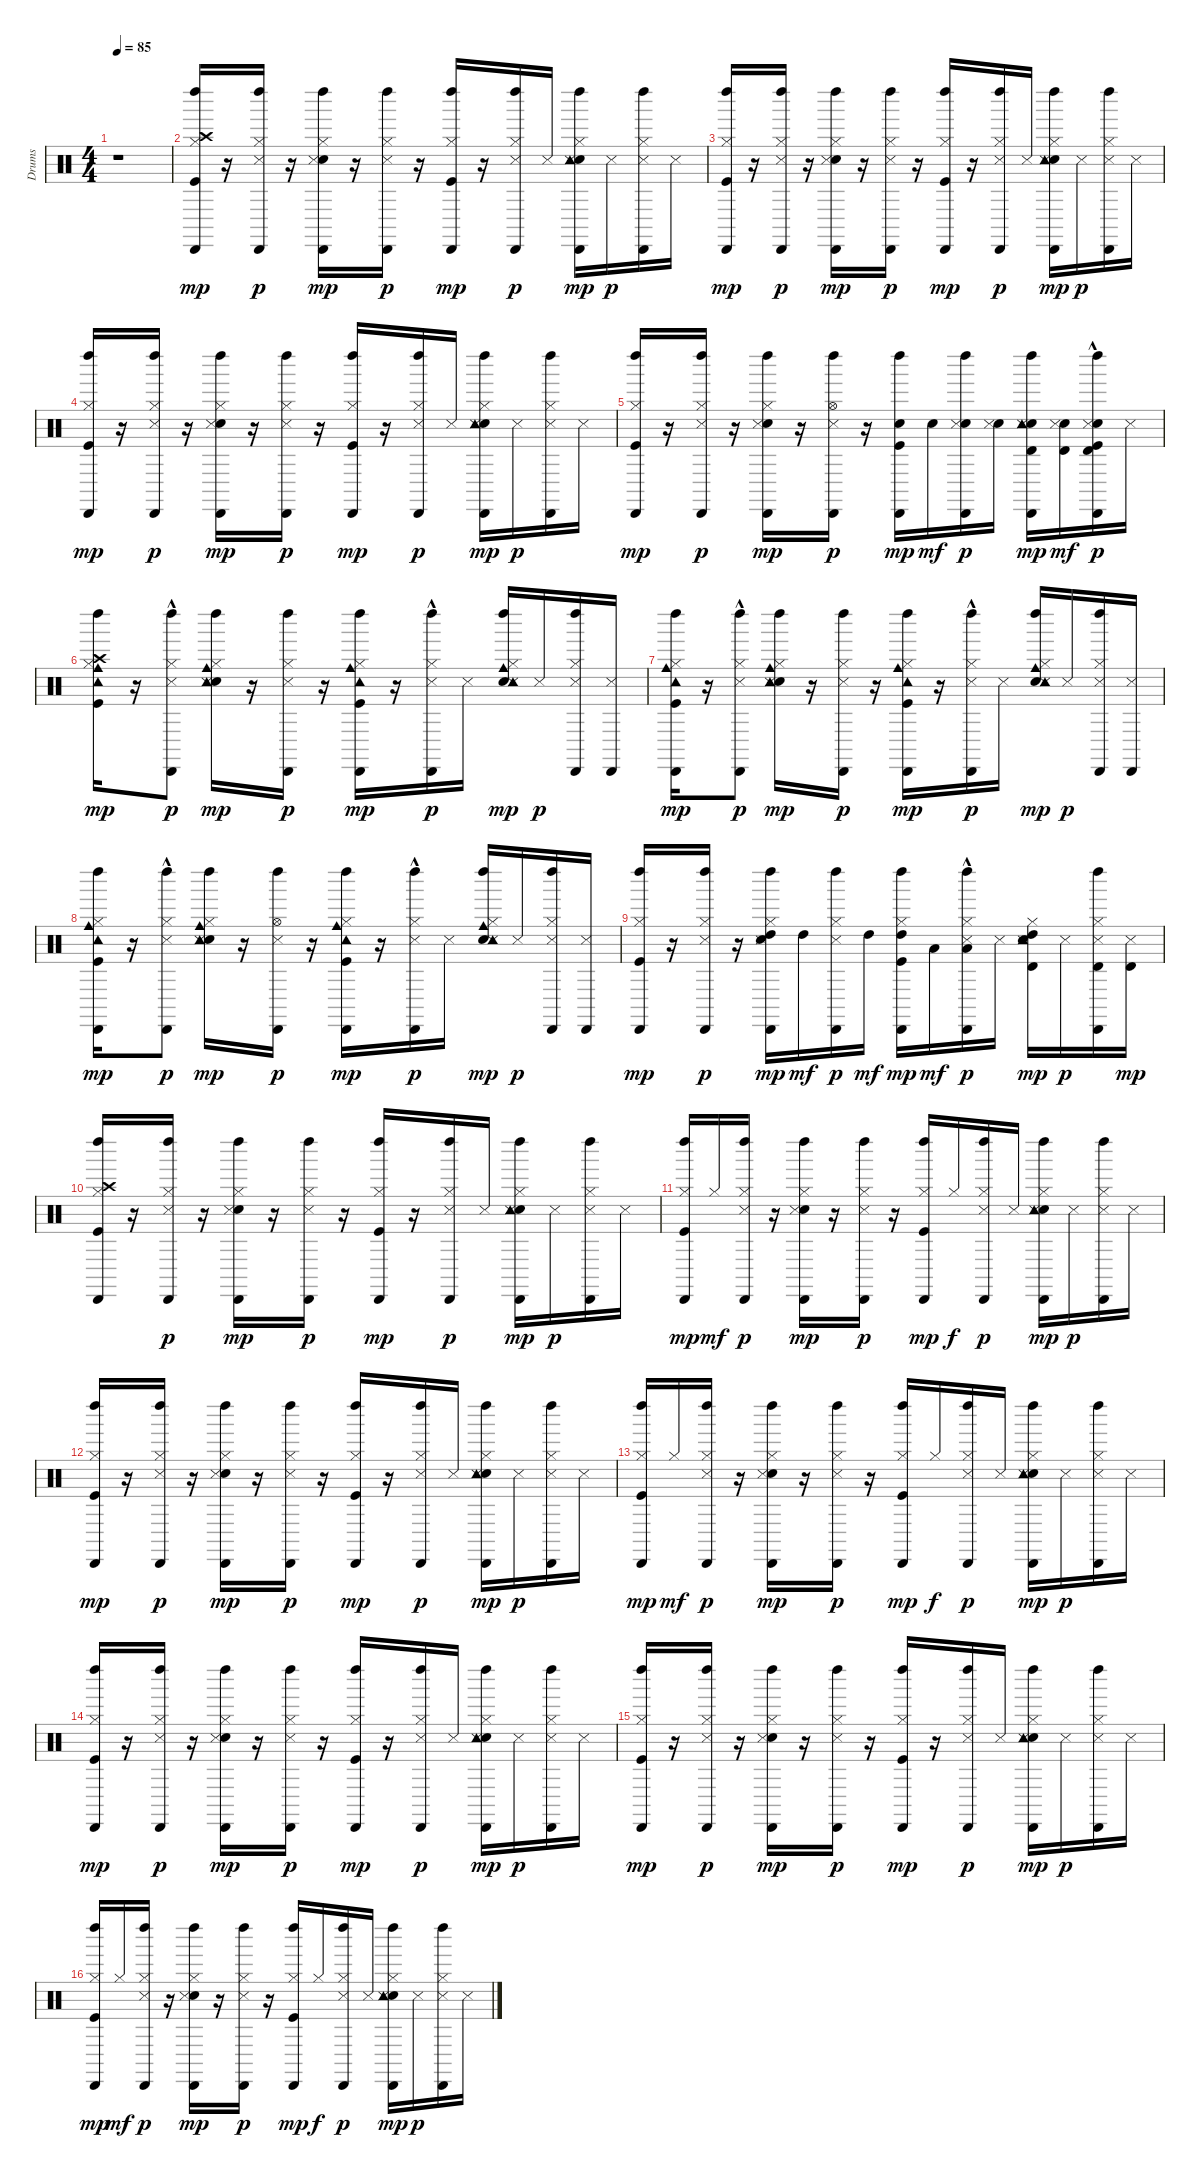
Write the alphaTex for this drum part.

\track ("Drums" "Drums") {instrument percussion}
\staff {score}
\articulation defaults
\ts (4 4)
\tempo 85
\clef neutral
\ks c
r.1{dy mp} |
("Kick (hit)" "Hi-Hat (closed)" "Crash high (hit)" "Left Maraca (hit)" "Cabasa (hit)").16 r.16 ("Hi-Hat (closed)" "Snare (side stick) 3" "Left Maraca (hit)" "Cabasa (hit)").16{dy p} r.16 ("Snare (hit) 2" "Hi-Hat (closed)" "Snare (side stick) 3" "Left Maraca (hit)" "Cabasa (hit)").16{dy mp} r.16 ("Hi-Hat (closed)" "Snare (side stick) 3" "Left Maraca (hit)" "Cabasa (hit)").16{dy p} r.16 ("Kick (hit)" "Hi-Hat (closed)" "Left Maraca (hit)" "Cabasa (hit)").16{dy mp} r.16 ("Hi-Hat (closed)" "Snare (side stick) 3" "Left Maraca (hit)" "Cabasa (hit)").16{dy p} "Snare (side stick) 3".16 ("Snare (hit) 2" "Hi-Hat (closed)" "Snare (side stick) 3" "Tambourine (hit)" "Left Maraca (hit)" "Cabasa (hit)").16{dy mp} "Snare (side stick) 3".16{dy p} ("Hi-Hat (closed)" "Snare (side stick) 3" "Left Maraca (hit)" "Cabasa (hit)").16 "Snare (side stick) 3".16 |
("Kick (hit)" "Hi-Hat (closed)" "Left Maraca (hit)" "Cabasa (hit)").16{dy mp} r.16 ("Hi-Hat (closed)" "Snare (side stick) 3" "Left Maraca (hit)" "Cabasa (hit)").16{dy p} r.16 ("Snare (hit) 2" "Hi-Hat (closed)" "Snare (side stick) 3" "Left Maraca (hit)" "Cabasa (hit)").16{dy mp} r.16 ("Hi-Hat (closed)" "Snare (side stick) 3" "Left Maraca (hit)" "Cabasa (hit)").16{dy p} r.16 ("Kick (hit)" "Hi-Hat (closed)" "Left Maraca (hit)" "Cabasa (hit)").16{dy mp} r.16 ("Hi-Hat (closed)" "Snare (side stick) 3" "Left Maraca (hit)" "Cabasa (hit)").16{dy p} "Snare (side stick) 3".16 ("Snare (hit) 2" "Hi-Hat (closed)" "Snare (side stick) 3" "Tambourine (hit)" "Left Maraca (hit)" "Cabasa (hit)").16{dy mp} "Snare (side stick) 3".16{dy p} ("Hi-Hat (closed)" "Snare (side stick) 3" "Left Maraca (hit)" "Cabasa (hit)").16 "Snare (side stick) 3".16 |
("Kick (hit)" "Hi-Hat (closed)" "Left Maraca (hit)" "Cabasa (hit)").16{dy mp} r.16 ("Hi-Hat (closed)" "Snare (side stick) 3" "Left Maraca (hit)" "Cabasa (hit)").16{dy p} r.16 ("Snare (hit) 2" "Hi-Hat (closed)" "Snare (side stick) 3" "Left Maraca (hit)" "Cabasa (hit)").16{dy mp} r.16 ("Hi-Hat (closed)" "Snare (side stick) 3" "Left Maraca (hit)" "Cabasa (hit)").16{dy p} r.16 ("Kick (hit)" "Hi-Hat (closed)" "Left Maraca (hit)" "Cabasa (hit)").16{dy mp} r.16 ("Hi-Hat (closed)" "Snare (side stick) 3" "Left Maraca (hit)" "Cabasa (hit)").16{dy p} "Snare (side stick) 3".16 ("Snare (hit) 2" "Hi-Hat (closed)" "Snare (side stick) 3" "Tambourine (hit)" "Left Maraca (hit)" "Cabasa (hit)").16{dy mp} "Snare (side stick) 3".16{dy p} ("Hi-Hat (closed)" "Snare (side stick) 3" "Left Maraca (hit)" "Cabasa (hit)").16 "Snare (side stick) 3".16 |
("Kick (hit)" "Hi-Hat (closed)" "Left Maraca (hit)" "Cabasa (hit)").16{dy mp} r.16 ("Hi-Hat (closed)" "Snare (side stick) 3" "Left Maraca (hit)" "Cabasa (hit)").16{dy p} r.16 ("Snare (hit) 2" "Hi-Hat (closed)" "Snare (side stick) 3" "Left Maraca (hit)" "Cabasa (hit)").16{dy mp} r.16 ("Hi-Hat (open)" "Snare (side stick) 3" "Left Maraca (hit)" "Cabasa (hit)").16{dy p} r.16 ("Kick (hit)" "Snare (hit) 2" "Left Maraca (hit)" "Cabasa (hit)").16{dy mp} "Snare (hit) 2".16{dy mf} ("Snare (hit) 2" "Snare (side stick) 3" "Left Maraca (hit)" "Cabasa (hit)").16{dy p} ("Snare (hit) 2" "Snare (side stick) 3").16 ("Snare (hit) 2" "Snare (side stick) 3" "Timbale high (hit)" "Tambourine (hit)" "Left Maraca (hit)" "Cabasa (hit)").16{dy mp} ("Snare (hit) 2" "Snare (side stick) 3" "Timbale high (hit)").16{dy mf} ("Kick (hit)" "Snare (hit) 2" "Snare (side stick) 3" "Timbale high (hit)" "Left Maraca (hit)" "Cabasa (hit)"{hac}).16{dy p} "Snare (side stick) 3".16 |
("Kick (hit)" "Hi-Hat (closed)" "Cowbell medium (hit)" "Crash high (hit)" "Tambourine (hit)" "Left Maraca (hit)").16{dy mp} r.16 ("Hi-Hat (closed)" "Snare (side stick) 3" "Left Maraca (hit)" "Cabasa (hit)"{hac}).8{dy p} ("Snare (hit) 2" "Hi-Hat (closed)" "Snare (side stick) 3" "Cowbell medium (hit)" "Tambourine (hit)" "Left Maraca (hit)").16{dy mp} r.16 ("Hi-Hat (closed)" "Snare (side stick) 3" "Left Maraca (hit)" "Cabasa (hit)").16{dy p} r.16 ("Kick (hit)" "Hi-Hat (closed)" "Cowbell medium (hit)" "Tambourine (hit)" "Left Maraca (hit)" "Cabasa (hit)").16{dy mp} r.16 ("Hi-Hat (closed)" "Snare (side stick) 3" "Left Maraca (hit)" "Cabasa (hit)"{hac}).16{dy p} "Snare (side stick) 3".16 ("Snare (hit) 2" "Hi-Hat (closed)" "Snare (side stick) 3" "Cowbell medium (hit)" "Tambourine (hit)" "Left Maraca (hit)").16{dy mp} "Snare (side stick) 3".16{dy p} ("Hi-Hat (closed)" "Snare (side stick) 3" "Left Maraca (hit)" "Cabasa (hit)").16 ("Snare (side stick) 3" "Cabasa (hit)").16 |
("Kick (hit)" "Hi-Hat (closed)" "Cowbell medium (hit)" "Tambourine (hit)" "Left Maraca (hit)" "Cabasa (hit)").16{dy mp} r.16 ("Hi-Hat (closed)" "Snare (side stick) 3" "Left Maraca (hit)" "Cabasa (hit)"{hac}).8{dy p} ("Snare (hit) 2" "Hi-Hat (closed)" "Snare (side stick) 3" "Cowbell medium (hit)" "Tambourine (hit)" "Left Maraca (hit)").16{dy mp} r.16 ("Hi-Hat (closed)" "Snare (side stick) 3" "Left Maraca (hit)" "Cabasa (hit)").16{dy p} r.16 ("Kick (hit)" "Hi-Hat (closed)" "Cowbell medium (hit)" "Tambourine (hit)" "Left Maraca (hit)" "Cabasa (hit)").16{dy mp} r.16 ("Hi-Hat (closed)" "Snare (side stick) 3" "Left Maraca (hit)" "Cabasa (hit)"{hac}).16{dy p} "Snare (side stick) 3".16 ("Snare (hit) 2" "Hi-Hat (closed)" "Snare (side stick) 3" "Cowbell medium (hit)" "Tambourine (hit)" "Left Maraca (hit)").16{dy mp} "Snare (side stick) 3".16{dy p} ("Hi-Hat (closed)" "Snare (side stick) 3" "Left Maraca (hit)" "Cabasa (hit)").16 ("Snare (side stick) 3" "Cabasa (hit)").16 |
("Kick (hit)" "Hi-Hat (closed)" "Cowbell medium (hit)" "Tambourine (hit)" "Left Maraca (hit)" "Cabasa (hit)").16{dy mp} r.16 ("Hi-Hat (closed)" "Snare (side stick) 3" "Left Maraca (hit)" "Cabasa (hit)"{hac}).8{dy p} ("Snare (hit) 2" "Hi-Hat (closed)" "Snare (side stick) 3" "Cowbell medium (hit)" "Tambourine (hit)" "Left Maraca (hit)").16{dy mp} r.16 ("Hi-Hat (open)" "Snare (side stick) 3" "Left Maraca (hit)" "Cabasa (hit)").16{dy p} r.16 ("Kick (hit)" "Hi-Hat (closed)" "Cowbell medium (hit)" "Tambourine (hit)" "Left Maraca (hit)" "Cabasa (hit)").16{dy mp} r.16 ("Hi-Hat (closed)" "Snare (side stick) 3" "Left Maraca (hit)" "Cabasa (hit)"{hac}).16{dy p} "Snare (side stick) 3".16 ("Snare (hit) 2" "Hi-Hat (closed)" "Snare (side stick) 3" "Cowbell medium (hit)" "Tambourine (hit)" "Left Maraca (hit)").16{dy mp} "Snare (side stick) 3".16{dy p} ("Hi-Hat (closed)" "Snare (side stick) 3" "Left Maraca (hit)" "Cabasa (hit)").16 ("Snare (side stick) 3" "Cabasa (hit)").16 |
("Kick (hit)" "Hi-Hat (closed)" "Left Maraca (hit)" "Cabasa (hit)").16{dy mp} r.16 ("Hi-Hat (closed)" "Snare (side stick) 3" "Left Maraca (hit)" "Cabasa (hit)").16{dy p} r.16 ("Snare (hit) 2" "Hi-Hat (closed)" "Snare (side stick) 3" "High Tom (hit)" "Left Maraca (hit)" "Cabasa (hit)").16{dy mp} "High Tom (hit)".16{dy mf} ("Hi-Hat (closed)" "Snare (side stick) 3" "Left Maraca (hit)" "Cabasa (hit)").16{dy p} "High Tom (hit)".16{dy mf} ("Kick (hit)" "Hi-Hat (closed)" "High Tom (hit)" "Left Maraca (hit)" "Cabasa (hit)").16{dy mp} "Low Tom (hit)".16{dy mf} ("Hi-Hat (closed)" "Snare (side stick) 3" "Low Tom (hit)" "Left Maraca (hit)"{hac} "Cabasa (hit)"{hac}).16{dy p} "Snare (side stick) 3".16 ("Snare (hit) 2" "Hi-Hat (closed)" "Snare (side stick) 3" "High Tom (hit)" "Timbale high (hit)" "Tambourine (hit)").16{dy mp} "Snare (side stick) 3".16{dy p} ("Hi-Hat (closed)" "Snare (side stick) 3" "Timbale high (hit)" "Left Maraca (hit)" "Cabasa (hit)").16 ("Snare (side stick) 3" "Timbale high (hit)").16{dy mp} |
("Kick (hit)" "Hi-Hat (closed)" "Crash high (hit)" "Left Maraca (hit)" "Cabasa (hit)").16 r.16 ("Hi-Hat (closed)" "Snare (side stick) 3" "Left Maraca (hit)" "Cabasa (hit)").16{dy p} r.16 ("Snare (hit) 2" "Hi-Hat (closed)" "Snare (side stick) 3" "Left Maraca (hit)" "Cabasa (hit)").16{dy mp} r.16 ("Hi-Hat (closed)" "Snare (side stick) 3" "Left Maraca (hit)" "Cabasa (hit)").16{dy p} r.16 ("Kick (hit)" "Hi-Hat (closed)" "Left Maraca (hit)" "Cabasa (hit)").16{dy mp} r.16 ("Hi-Hat (closed)" "Snare (side stick) 3" "Left Maraca (hit)" "Cabasa (hit)").16{dy p} "Snare (side stick) 3".16 ("Snare (hit) 2" "Hi-Hat (closed)" "Snare (side stick) 3" "Tambourine (hit)" "Left Maraca (hit)" "Cabasa (hit)").16{dy mp} "Snare (side stick) 3".16{dy p} ("Hi-Hat (closed)" "Snare (side stick) 3" "Left Maraca (hit)" "Cabasa (hit)").16 "Snare (side stick) 3".16 |
("Kick (hit)" "Hi-Hat (closed)" "Left Maraca (hit)" "Cabasa (hit)").16{dy mp} "Hi-Hat (closed)".16{dy mf} ("Hi-Hat (closed)" "Snare (side stick) 3" "Left Maraca (hit)" "Cabasa (hit)").16{dy p} r.16 ("Snare (hit) 2" "Hi-Hat (closed)" "Snare (side stick) 3" "Left Maraca (hit)" "Cabasa (hit)").16{dy mp} r.16 ("Hi-Hat (closed)" "Snare (side stick) 3" "Left Maraca (hit)" "Cabasa (hit)").16{dy p} r.16 ("Kick (hit)" "Hi-Hat (closed)" "Left Maraca (hit)" "Cabasa (hit)").16{dy mp} "Hi-Hat (closed)".16{dy f} ("Hi-Hat (closed)" "Snare (side stick) 3" "Left Maraca (hit)" "Cabasa (hit)").16{dy p} "Snare (side stick) 3".16 ("Snare (hit) 2" "Hi-Hat (closed)" "Snare (side stick) 3" "Tambourine (hit)" "Left Maraca (hit)" "Cabasa (hit)").16{dy mp} "Snare (side stick) 3".16{dy p} ("Hi-Hat (closed)" "Snare (side stick) 3" "Left Maraca (hit)" "Cabasa (hit)").16 "Snare (side stick) 3".16 |
("Kick (hit)" "Hi-Hat (closed)" "Left Maraca (hit)" "Cabasa (hit)").16{dy mp} r.16 ("Hi-Hat (closed)" "Snare (side stick) 3" "Left Maraca (hit)" "Cabasa (hit)").16{dy p} r.16 ("Snare (hit) 2" "Hi-Hat (closed)" "Snare (side stick) 3" "Left Maraca (hit)" "Cabasa (hit)").16{dy mp} r.16 ("Hi-Hat (closed)" "Snare (side stick) 3" "Left Maraca (hit)" "Cabasa (hit)").16{dy p} r.16 ("Kick (hit)" "Hi-Hat (closed)" "Left Maraca (hit)" "Cabasa (hit)").16{dy mp} r.16 ("Hi-Hat (closed)" "Snare (side stick) 3" "Left Maraca (hit)" "Cabasa (hit)").16{dy p} "Snare (side stick) 3".16 ("Snare (hit) 2" "Hi-Hat (closed)" "Snare (side stick) 3" "Tambourine (hit)" "Left Maraca (hit)" "Cabasa (hit)").16{dy mp} "Snare (side stick) 3".16{dy p} ("Hi-Hat (closed)" "Snare (side stick) 3" "Left Maraca (hit)" "Cabasa (hit)").16 "Snare (side stick) 3".16 |
("Kick (hit)" "Hi-Hat (closed)" "Left Maraca (hit)" "Cabasa (hit)").16{dy mp} "Hi-Hat (closed)".16{dy mf} ("Hi-Hat (closed)" "Snare (side stick) 3" "Left Maraca (hit)" "Cabasa (hit)").16{dy p} r.16 ("Snare (hit) 2" "Hi-Hat (closed)" "Snare (side stick) 3" "Left Maraca (hit)" "Cabasa (hit)").16{dy mp} r.16 ("Hi-Hat (closed)" "Snare (side stick) 3" "Left Maraca (hit)" "Cabasa (hit)").16{dy p} r.16 ("Kick (hit)" "Hi-Hat (closed)" "Left Maraca (hit)" "Cabasa (hit)").16{dy mp} "Hi-Hat (closed)".16{dy f} ("Hi-Hat (closed)" "Snare (side stick) 3" "Left Maraca (hit)" "Cabasa (hit)").16{dy p} "Snare (side stick) 3".16 ("Snare (hit) 2" "Hi-Hat (closed)" "Snare (side stick) 3" "Tambourine (hit)" "Left Maraca (hit)" "Cabasa (hit)").16{dy mp} "Snare (side stick) 3".16{dy p} ("Hi-Hat (closed)" "Snare (side stick) 3" "Left Maraca (hit)" "Cabasa (hit)").16 "Snare (side stick) 3".16 |
("Kick (hit)" "Hi-Hat (closed)" "Left Maraca (hit)" "Cabasa (hit)").16{dy mp} r.16 ("Hi-Hat (closed)" "Snare (side stick) 3" "Left Maraca (hit)" "Cabasa (hit)").16{dy p} r.16 ("Snare (hit) 2" "Hi-Hat (closed)" "Snare (side stick) 3" "Left Maraca (hit)" "Cabasa (hit)").16{dy mp} r.16 ("Hi-Hat (closed)" "Snare (side stick) 3" "Left Maraca (hit)" "Cabasa (hit)").16{dy p} r.16 ("Kick (hit)" "Hi-Hat (closed)" "Left Maraca (hit)" "Cabasa (hit)").16{dy mp} r.16 ("Hi-Hat (closed)" "Snare (side stick) 3" "Left Maraca (hit)" "Cabasa (hit)").16{dy p} "Snare (side stick) 3".16 ("Snare (hit) 2" "Hi-Hat (closed)" "Snare (side stick) 3" "Tambourine (hit)" "Left Maraca (hit)" "Cabasa (hit)").16{dy mp} "Snare (side stick) 3".16{dy p} ("Hi-Hat (closed)" "Snare (side stick) 3" "Left Maraca (hit)" "Cabasa (hit)").16 "Snare (side stick) 3".16 |
("Kick (hit)" "Hi-Hat (closed)" "Left Maraca (hit)" "Cabasa (hit)").16{dy mp} r.16 ("Hi-Hat (closed)" "Snare (side stick) 3" "Left Maraca (hit)" "Cabasa (hit)").16{dy p} r.16 ("Snare (hit) 2" "Hi-Hat (closed)" "Snare (side stick) 3" "Left Maraca (hit)" "Cabasa (hit)").16{dy mp} r.16 ("Hi-Hat (closed)" "Snare (side stick) 3" "Left Maraca (hit)" "Cabasa (hit)").16{dy p} r.16 ("Kick (hit)" "Hi-Hat (closed)" "Left Maraca (hit)" "Cabasa (hit)").16{dy mp} r.16 ("Hi-Hat (closed)" "Snare (side stick) 3" "Left Maraca (hit)" "Cabasa (hit)").16{dy p} "Snare (side stick) 3".16 ("Snare (hit) 2" "Hi-Hat (closed)" "Snare (side stick) 3" "Tambourine (hit)" "Left Maraca (hit)" "Cabasa (hit)").16{dy mp} "Snare (side stick) 3".16{dy p} ("Hi-Hat (closed)" "Snare (side stick) 3" "Left Maraca (hit)" "Cabasa (hit)").16 "Snare (side stick) 3".16 |
("Kick (hit)" "Hi-Hat (closed)" "Left Maraca (hit)" "Cabasa (hit)").16{dy mp} "Hi-Hat (closed)".16{dy mf} ("Hi-Hat (closed)" "Snare (side stick) 3" "Left Maraca (hit)" "Cabasa (hit)").16{dy p} r.16 ("Snare (hit) 2" "Hi-Hat (closed)" "Snare (side stick) 3" "Left Maraca (hit)" "Cabasa (hit)").16{dy mp} r.16 ("Hi-Hat (closed)" "Snare (side stick) 3" "Left Maraca (hit)" "Cabasa (hit)").16{dy p} r.16 ("Kick (hit)" "Hi-Hat (closed)" "Left Maraca (hit)" "Cabasa (hit)").16{dy mp} "Hi-Hat (closed)".16{dy f} ("Hi-Hat (closed)" "Snare (side stick) 3" "Left Maraca (hit)" "Cabasa (hit)").16{dy p} "Snare (side stick) 3".16 ("Snare (hit) 2" "Hi-Hat (closed)" "Snare (side stick) 3" "Tambourine (hit)" "Left Maraca (hit)" "Cabasa (hit)").16{dy mp} "Snare (side stick) 3".16{dy p} ("Hi-Hat (closed)" "Snare (side stick) 3" "Left Maraca (hit)" "Cabasa (hit)").16 "Snare (side stick) 3".16
